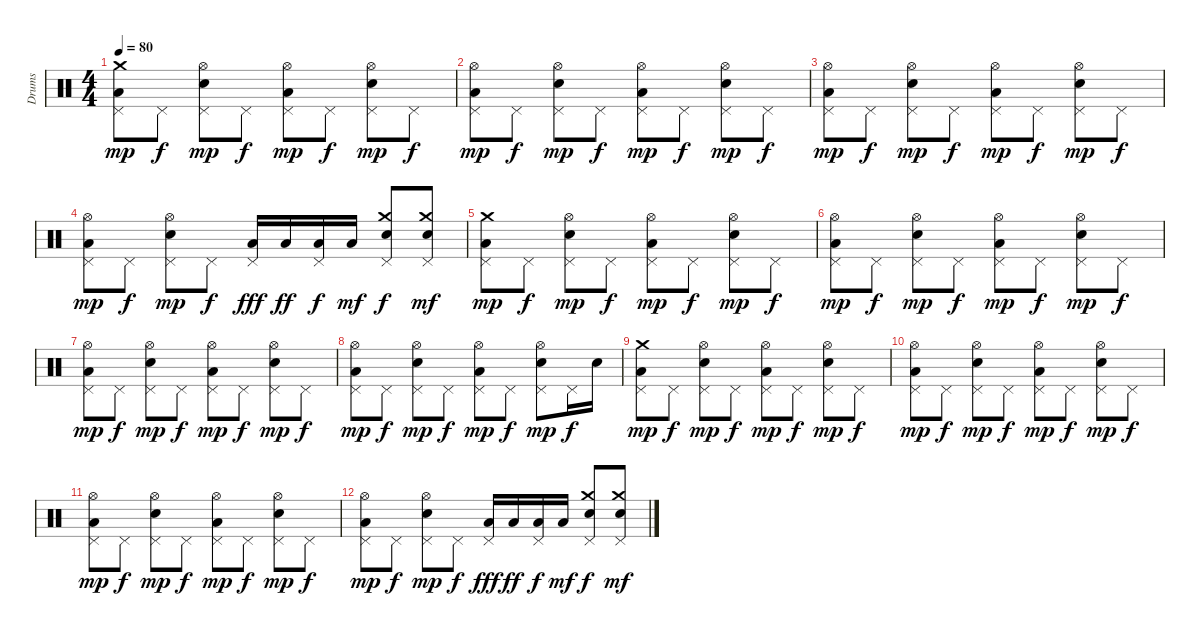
\track ("Drums" "Drums") {instrument percussion}
\staff {score}
\articulation defaults
\ts (4 4)
\tempo 80
\clef neutral
\ks c
("Low Floor Tom (hit)" "Pedal Hi-Hat (hit)" "Crash medium (hit)").8{dy mp} "Pedal Hi-Hat (hit)".8{dy f} ("Electric Snare (hit)" "Pedal Hi-Hat (hit)" "Hi-Hat (open)").8{dy mp} "Pedal Hi-Hat (hit)".8{dy f} ("Low Floor Tom (hit)" "Pedal Hi-Hat (hit)" "Hi-Hat (open)").8{dy mp} "Pedal Hi-Hat (hit)".8{dy f} ("Electric Snare (hit)" "Pedal Hi-Hat (hit)" "Hi-Hat (open)").8{dy mp} "Pedal Hi-Hat (hit)".8{dy f} |
("Low Floor Tom (hit)" "Pedal Hi-Hat (hit)" "Hi-Hat (open)").8{dy mp} "Pedal Hi-Hat (hit)".8{dy f} ("Electric Snare (hit)" "Pedal Hi-Hat (hit)" "Hi-Hat (open)").8{dy mp} "Pedal Hi-Hat (hit)".8{dy f} ("Low Floor Tom (hit)" "Pedal Hi-Hat (hit)" "Hi-Hat (open)").8{dy mp} "Pedal Hi-Hat (hit)".8{dy f} ("Electric Snare (hit)" "Pedal Hi-Hat (hit)" "Hi-Hat (open)").8{dy mp} "Pedal Hi-Hat (hit)".8{dy f} |
("Low Floor Tom (hit)" "Pedal Hi-Hat (hit)" "Hi-Hat (open)").8{dy mp} "Pedal Hi-Hat (hit)".8{dy f} ("Electric Snare (hit)" "Pedal Hi-Hat (hit)" "Hi-Hat (open)").8{dy mp} "Pedal Hi-Hat (hit)".8{dy f} ("Low Floor Tom (hit)" "Pedal Hi-Hat (hit)" "Hi-Hat (open)").8{dy mp} "Pedal Hi-Hat (hit)".8{dy f} ("Electric Snare (hit)" "Pedal Hi-Hat (hit)" "Hi-Hat (open)").8{dy mp} "Pedal Hi-Hat (hit)".8{dy f} |
("Low Floor Tom (hit)" "Pedal Hi-Hat (hit)" "Hi-Hat (open)").8{dy mp} "Pedal Hi-Hat (hit)".8{dy f} ("Electric Snare (hit)" "Pedal Hi-Hat (hit)" "Hi-Hat (open)").8{dy mp} "Pedal Hi-Hat (hit)".8{dy f} ("Low Floor Tom (hit)" "Pedal Hi-Hat (hit)").16{dy fff} "Low Floor Tom (hit)".16{dy ff} ("Low Floor Tom (hit)" "Pedal Hi-Hat (hit)").16{dy f} "Low Floor Tom (hit)".16{dy mf} ("Electric Snare (hit)" "Pedal Hi-Hat (hit)" "Crash medium (hit)").8{dy f} ("Electric Snare (hit)" "Pedal Hi-Hat (hit)" "Crash medium (hit)").8{dy mf} |
("Low Floor Tom (hit)" "Pedal Hi-Hat (hit)" "Crash medium (hit)").8{dy mp} "Pedal Hi-Hat (hit)".8{dy f} ("Electric Snare (hit)" "Pedal Hi-Hat (hit)" "Hi-Hat (open)").8{dy mp} "Pedal Hi-Hat (hit)".8{dy f} ("Low Floor Tom (hit)" "Pedal Hi-Hat (hit)" "Hi-Hat (open)").8{dy mp} "Pedal Hi-Hat (hit)".8{dy f} ("Electric Snare (hit)" "Pedal Hi-Hat (hit)" "Hi-Hat (open)").8{dy mp} "Pedal Hi-Hat (hit)".8{dy f} |
("Low Floor Tom (hit)" "Pedal Hi-Hat (hit)" "Hi-Hat (open)").8{dy mp} "Pedal Hi-Hat (hit)".8{dy f} ("Electric Snare (hit)" "Pedal Hi-Hat (hit)" "Hi-Hat (open)").8{dy mp} "Pedal Hi-Hat (hit)".8{dy f} ("Low Floor Tom (hit)" "Pedal Hi-Hat (hit)" "Hi-Hat (open)").8{dy mp} "Pedal Hi-Hat (hit)".8{dy f} ("Electric Snare (hit)" "Pedal Hi-Hat (hit)" "Hi-Hat (open)").8{dy mp} "Pedal Hi-Hat (hit)".8{dy f} |
("Low Floor Tom (hit)" "Pedal Hi-Hat (hit)" "Hi-Hat (open)").8{dy mp} "Pedal Hi-Hat (hit)".8{dy f} ("Electric Snare (hit)" "Pedal Hi-Hat (hit)" "Hi-Hat (open)").8{dy mp} "Pedal Hi-Hat (hit)".8{dy f} ("Low Floor Tom (hit)" "Pedal Hi-Hat (hit)" "Hi-Hat (open)").8{dy mp} "Pedal Hi-Hat (hit)".8{dy f} ("Electric Snare (hit)" "Pedal Hi-Hat (hit)" "Hi-Hat (open)").8{dy mp} "Pedal Hi-Hat (hit)".8{dy f} |
("Low Floor Tom (hit)" "Pedal Hi-Hat (hit)" "Hi-Hat (open)").8{dy mp} "Pedal Hi-Hat (hit)".8{dy f} ("Electric Snare (hit)" "Pedal Hi-Hat (hit)" "Hi-Hat (open)").8{dy mp} "Pedal Hi-Hat (hit)".8{dy f} ("Low Floor Tom (hit)" "Pedal Hi-Hat (hit)" "Hi-Hat (open)").8{dy mp} "Pedal Hi-Hat (hit)".8{dy f} ("Electric Snare (hit)" "Pedal Hi-Hat (hit)" "Hi-Hat (open)").8{dy mp} "Pedal Hi-Hat (hit)".16{dy f} "Electric Snare (hit)".16 |
("Low Floor Tom (hit)" "Pedal Hi-Hat (hit)" "Crash medium (hit)").8{dy mp volume 0} "Pedal Hi-Hat (hit)".8{dy f} ("Electric Snare (hit)" "Pedal Hi-Hat (hit)" "Hi-Hat (open)").8{dy mp} "Pedal Hi-Hat (hit)".8{dy f} ("Low Floor Tom (hit)" "Pedal Hi-Hat (hit)" "Hi-Hat (open)").8{dy mp} "Pedal Hi-Hat (hit)".8{dy f} ("Electric Snare (hit)" "Pedal Hi-Hat (hit)" "Hi-Hat (open)").8{dy mp} "Pedal Hi-Hat (hit)".8{dy f} |
("Low Floor Tom (hit)" "Pedal Hi-Hat (hit)" "Hi-Hat (open)").8{dy mp} "Pedal Hi-Hat (hit)".8{dy f} ("Electric Snare (hit)" "Pedal Hi-Hat (hit)" "Hi-Hat (open)").8{dy mp} "Pedal Hi-Hat (hit)".8{dy f} ("Low Floor Tom (hit)" "Pedal Hi-Hat (hit)" "Hi-Hat (open)").8{dy mp} "Pedal Hi-Hat (hit)".8{dy f} ("Electric Snare (hit)" "Pedal Hi-Hat (hit)" "Hi-Hat (open)").8{dy mp} "Pedal Hi-Hat (hit)".8{dy f} |
("Low Floor Tom (hit)" "Pedal Hi-Hat (hit)" "Hi-Hat (open)").8{dy mp} "Pedal Hi-Hat (hit)".8{dy f} ("Electric Snare (hit)" "Pedal Hi-Hat (hit)" "Hi-Hat (open)").8{dy mp} "Pedal Hi-Hat (hit)".8{dy f} ("Low Floor Tom (hit)" "Pedal Hi-Hat (hit)" "Hi-Hat (open)").8{dy mp} "Pedal Hi-Hat (hit)".8{dy f} ("Electric Snare (hit)" "Pedal Hi-Hat (hit)" "Hi-Hat (open)").8{dy mp} "Pedal Hi-Hat (hit)".8{dy f} |
("Low Floor Tom (hit)" "Pedal Hi-Hat (hit)" "Hi-Hat (open)").8{dy mp} "Pedal Hi-Hat (hit)".8{dy f} ("Electric Snare (hit)" "Pedal Hi-Hat (hit)" "Hi-Hat (open)").8{dy mp} "Pedal Hi-Hat (hit)".8{dy f} ("Low Floor Tom (hit)" "Pedal Hi-Hat (hit)").16{dy fff} "Low Floor Tom (hit)".16{dy ff} ("Low Floor Tom (hit)" "Pedal Hi-Hat (hit)").16{dy f} "Low Floor Tom (hit)".16{dy mf} ("Electric Snare (hit)" "Pedal Hi-Hat (hit)" "Crash medium (hit)").8{dy f} ("Electric Snare (hit)" "Pedal Hi-Hat (hit)" "Crash medium (hit)").8{dy mf}
